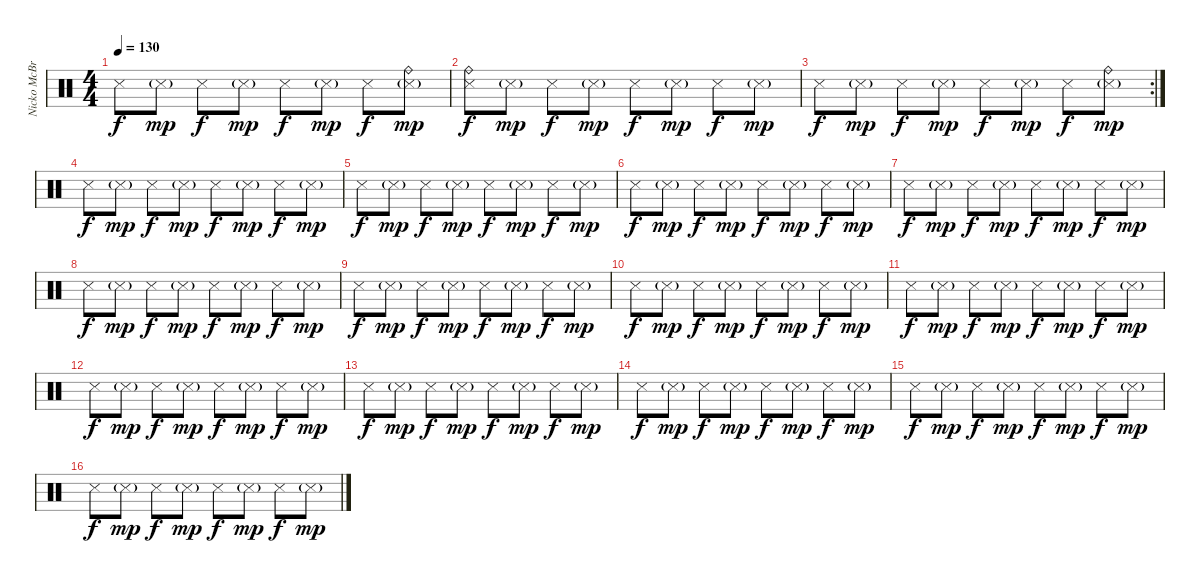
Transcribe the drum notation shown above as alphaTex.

\track ("Nicko McBrain" "Nicko McBr") {instrument percussion}
\staff {score}
\articulation defaults
\ts (4 4)
\tempo 130
\clef neutral
\ks c "Snare (side stick) 3".8{dy f} "Snare (side stick) 3"{g}.8{dy mp} "Snare (side stick) 3".8{dy f} "Snare (side stick) 3"{g}.8{dy mp} "Snare (side stick) 3".8{dy f} "Snare (side stick) 3"{g}.8{dy mp} "Snare (side stick) 3".8{dy f}
("Ride (bell)" "Snare (side stick) 3"{g}).8{dy mp} |
("Ride (bell)" "Snare (side stick) 3").8{dy f} "Snare (side stick) 3"{g}.8{dy mp} "Snare (side stick) 3".8{dy f} "Snare (side stick) 3"{g}.8{dy mp} "Snare (side stick) 3".8{dy f} "Snare (side stick) 3"{g}.8{dy mp} "Snare (side stick) 3".8{dy f} "Snare (side stick) 3"{g}.8{dy mp} |
\rc 2 "Snare (side stick) 3".8{dy f} "Snare (side stick) 3"{g}.8{dy mp} "Snare (side stick) 3".8{dy f} "Snare (side stick) 3"{g}.8{dy mp} "Snare (side stick) 3".8{dy f} "Snare (side stick) 3"{g}.8{dy mp} "Snare (side stick) 3".8{dy f}
("Ride (bell)" "Snare (side stick) 3"{g}).8{dy mp} |
"Snare (side stick) 3".8{dy f} "Snare (side stick) 3"{g}.8{dy mp} "Snare (side stick) 3".8{dy f} "Snare (side stick) 3"{g}.8{dy mp} "Snare (side stick) 3".8{dy f} "Snare (side stick) 3"{g}.8{dy mp} "Snare (side stick) 3".8{dy f} "Snare (side stick) 3"{g}.8{dy mp} |
"Snare (side stick) 3".8{dy f} "Snare (side stick) 3"{g}.8{dy mp} "Snare (side stick) 3".8{dy f} "Snare (side stick) 3"{g}.8{dy mp} "Snare (side stick) 3".8{dy f} "Snare (side stick) 3"{g}.8{dy mp} "Snare (side stick) 3".8{dy f} "Snare (side stick) 3"{g}.8{dy mp} |
"Snare (side stick) 3".8{dy f} "Snare (side stick) 3"{g}.8{dy mp} "Snare (side stick) 3".8{dy f} "Snare (side stick) 3"{g}.8{dy mp} "Snare (side stick) 3".8{dy f} "Snare (side stick) 3"{g}.8{dy mp} "Snare (side stick) 3".8{dy f} "Snare (side stick) 3"{g}.8{dy mp} |
"Snare (side stick) 3".8{dy f} "Snare (side stick) 3"{g}.8{dy mp} "Snare (side stick) 3".8{dy f} "Snare (side stick) 3"{g}.8{dy mp} "Snare (side stick) 3".8{dy f} "Snare (side stick) 3"{g}.8{dy mp} "Snare (side stick) 3".8{dy f} "Snare (side stick) 3"{g}.8{dy mp} |
"Snare (side stick) 3".8{dy f} "Snare (side stick) 3"{g}.8{dy mp} "Snare (side stick) 3".8{dy f} "Snare (side stick) 3"{g}.8{dy mp} "Snare (side stick) 3".8{dy f} "Snare (side stick) 3"{g}.8{dy mp} "Snare (side stick) 3".8{dy f} "Snare (side stick) 3"{g}.8{dy mp} |
"Snare (side stick) 3".8{dy f} "Snare (side stick) 3"{g}.8{dy mp} "Snare (side stick) 3".8{dy f} "Snare (side stick) 3"{g}.8{dy mp} "Snare (side stick) 3".8{dy f} "Snare (side stick) 3"{g}.8{dy mp} "Snare (side stick) 3".8{dy f} "Snare (side stick) 3"{g}.8{dy mp} |
"Snare (side stick) 3".8{dy f} "Snare (side stick) 3"{g}.8{dy mp} "Snare (side stick) 3".8{dy f} "Snare (side stick) 3"{g}.8{dy mp} "Snare (side stick) 3".8{dy f} "Snare (side stick) 3"{g}.8{dy mp} "Snare (side stick) 3".8{dy f} "Snare (side stick) 3"{g}.8{dy mp} |
"Snare (side stick) 3".8{dy f} "Snare (side stick) 3"{g}.8{dy mp} "Snare (side stick) 3".8{dy f} "Snare (side stick) 3"{g}.8{dy mp} "Snare (side stick) 3".8{dy f} "Snare (side stick) 3"{g}.8{dy mp} "Snare (side stick) 3".8{dy f} "Snare (side stick) 3"{g}.8{dy mp} |
"Snare (side stick) 3".8{dy f} "Snare (side stick) 3"{g}.8{dy mp} "Snare (side stick) 3".8{dy f} "Snare (side stick) 3"{g}.8{dy mp} "Snare (side stick) 3".8{dy f} "Snare (side stick) 3"{g}.8{dy mp} "Snare (side stick) 3".8{dy f} "Snare (side stick) 3"{g}.8{dy mp} |
"Snare (side stick) 3".8{dy f} "Snare (side stick) 3"{g}.8{dy mp} "Snare (side stick) 3".8{dy f} "Snare (side stick) 3"{g}.8{dy mp} "Snare (side stick) 3".8{dy f} "Snare (side stick) 3"{g}.8{dy mp} "Snare (side stick) 3".8{dy f} "Snare (side stick) 3"{g}.8{dy mp} |
"Snare (side stick) 3".8{dy f} "Snare (side stick) 3"{g}.8{dy mp} "Snare (side stick) 3".8{dy f} "Snare (side stick) 3"{g}.8{dy mp} "Snare (side stick) 3".8{dy f} "Snare (side stick) 3"{g}.8{dy mp} "Snare (side stick) 3".8{dy f} "Snare (side stick) 3"{g}.8{dy mp} |
"Snare (side stick) 3".8{dy f} "Snare (side stick) 3"{g}.8{dy mp} "Snare (side stick) 3".8{dy f} "Snare (side stick) 3"{g}.8{dy mp} "Snare (side stick) 3".8{dy f} "Snare (side stick) 3"{g}.8{dy mp} "Snare (side stick) 3".8{dy f} "Snare (side stick) 3"{g}.8{dy mp} |
"Snare (side stick) 3".8{dy f} "Snare (side stick) 3"{g}.8{dy mp} "Snare (side stick) 3".8{dy f} "Snare (side stick) 3"{g}.8{dy mp} "Snare (side stick) 3".8{dy f} "Snare (side stick) 3"{g}.8{dy mp} "Snare (side stick) 3".8{dy f} "Snare (side stick) 3"{g}.8{dy mp}
